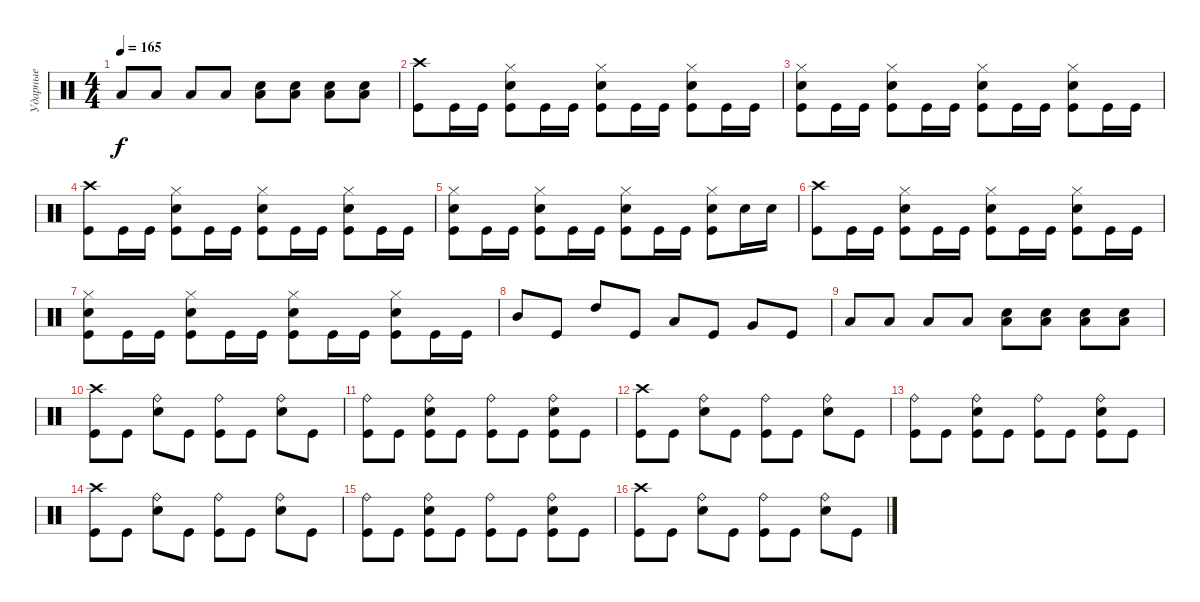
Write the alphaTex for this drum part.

\track ("Ударные" "Ударные") {instrument percussion}
\staff {score}
\articulation defaults
\ts (4 4)
\tempo 165
\clef neutral
\ks c "Low Tom (hit)".8{dy f} "Low Tom (hit)".8 "Low Tom (hit)".8 "Low Tom (hit)".8
("Electric Snare (hit)" "Low Tom (hit)").8 ("Electric Snare (hit)" "Low Tom (hit)").8 ("Electric Snare (hit)" "Low Tom (hit)").8 ("Electric Snare (hit)" "Low Tom (hit)").8 |
("Crash high (hit)" "Kick (hit)").8 "Kick (hit)".16 "Kick (hit)".16 ("Hi-Hat (closed)" "Electric Snare (hit)" "Kick (hit)").8 "Kick (hit)".16 "Kick (hit)".16 ("Hi-Hat (closed)" "Electric Snare (hit)" "Kick (hit)").8 "Kick (hit)".16 "Kick (hit)".16 ("Hi-Hat (closed)" "Electric Snare (hit)" "Kick (hit)").8 "Kick (hit)".16 "Kick (hit)".16 |
("Hi-Hat (closed)" "Electric Snare (hit)" "Kick (hit)").8 "Kick (hit)".16 "Kick (hit)".16 ("Hi-Hat (closed)" "Electric Snare (hit)" "Kick (hit)").8 "Kick (hit)".16 "Kick (hit)".16 ("Hi-Hat (closed)" "Electric Snare (hit)" "Kick (hit)").8 "Kick (hit)".16 "Kick (hit)".16 ("Hi-Hat (closed)" "Electric Snare (hit)" "Kick (hit)").8 "Kick (hit)".16 "Kick (hit)".16 |
("Crash high (hit)" "Kick (hit)").8 "Kick (hit)".16 "Kick (hit)".16 ("Hi-Hat (closed)" "Electric Snare (hit)" "Kick (hit)").8 "Kick (hit)".16 "Kick (hit)".16 ("Hi-Hat (closed)" "Electric Snare (hit)" "Kick (hit)").8 "Kick (hit)".16 "Kick (hit)".16 ("Hi-Hat (closed)" "Electric Snare (hit)" "Kick (hit)").8 "Kick (hit)".16 "Kick (hit)".16 |
("Hi-Hat (closed)" "Electric Snare (hit)" "Kick (hit)").8 "Kick (hit)".16 "Kick (hit)".16 ("Hi-Hat (closed)" "Electric Snare (hit)" "Kick (hit)").8 "Kick (hit)".16 "Kick (hit)".16 ("Hi-Hat (closed)" "Electric Snare (hit)" "Kick (hit)").8 "Kick (hit)".16 "Kick (hit)".16 ("Hi-Hat (closed)" "Electric Snare (hit)" "Kick (hit)").8 "Electric Snare (hit)".16 "Electric Snare (hit)".16 |
("Crash high (hit)" "Kick (hit)").8 "Kick (hit)".16 "Kick (hit)".16 ("Hi-Hat (closed)" "Electric Snare (hit)" "Kick (hit)").8 "Kick (hit)".16 "Kick (hit)".16 ("Hi-Hat (closed)" "Electric Snare (hit)" "Kick (hit)").8 "Kick (hit)".16 "Kick (hit)".16 ("Hi-Hat (closed)" "Electric Snare (hit)" "Kick (hit)").8 "Kick (hit)".16 "Kick (hit)".16 |
("Hi-Hat (closed)" "Electric Snare (hit)" "Kick (hit)").8 "Kick (hit)".16 "Kick (hit)".16 ("Hi-Hat (closed)" "Electric Snare (hit)" "Kick (hit)").8 "Kick (hit)".16 "Kick (hit)".16 ("Hi-Hat (closed)" "Electric Snare (hit)" "Kick (hit)").8 "Kick (hit)".16 "Kick (hit)".16 ("Hi-Hat (closed)" "Electric Snare (hit)" "Kick (hit)").8 "Kick (hit)".16 "Kick (hit)".16 |
"Mid Tom (hit)".8 "Kick (hit)".8 "High Tom (hit)".8 "Kick (hit)".8 "Low Tom (hit)".8 "Kick (hit)".8 "Very Low Tom (hit)".8 "Kick (hit)".8 |
"Low Tom (hit)".8 "Low Tom (hit)".8 "Low Tom (hit)".8 "Low Tom (hit)".8 ("Electric Snare (hit)" "Low Tom (hit)").8 ("Electric Snare (hit)" "Low Tom (hit)").8 ("Electric Snare (hit)" "Low Tom (hit)").8 ("Electric Snare (hit)" "Low Tom (hit)").8 |
("Crash high (hit)" "Kick (hit)").8 "Kick (hit)".8 ("Ride (bell)" "Electric Snare (hit)").8 "Kick (hit)".8 ("Ride (bell)" "Kick (hit)").8 "Kick (hit)".8 ("Ride (bell)" "Electric Snare (hit)").8 "Kick (hit)".8 |
("Ride (bell)" "Kick (hit)").8 "Kick (hit)".8 ("Ride (bell)" "Electric Snare (hit)" "Kick (hit)").8 "Kick (hit)".8 ("Ride (bell)" "Kick (hit)").8 "Kick (hit)".8 ("Ride (bell)" "Electric Snare (hit)" "Kick (hit)").8 "Kick (hit)".8 |
("Crash high (hit)" "Kick (hit)").8 "Kick (hit)".8 ("Ride (bell)" "Electric Snare (hit)").8 "Kick (hit)".8 ("Ride (bell)" "Kick (hit)").8 "Kick (hit)".8 ("Ride (bell)" "Electric Snare (hit)").8 "Kick (hit)".8 |
("Ride (bell)" "Kick (hit)").8 "Kick (hit)".8 ("Ride (bell)" "Electric Snare (hit)" "Kick (hit)").8 "Kick (hit)".8 ("Ride (bell)" "Kick (hit)").8 "Kick (hit)".8 ("Ride (bell)" "Electric Snare (hit)" "Kick (hit)").8 "Kick (hit)".8 |
("Crash high (hit)" "Kick (hit)").8 "Kick (hit)".8 ("Ride (bell)" "Electric Snare (hit)").8 "Kick (hit)".8 ("Ride (bell)" "Kick (hit)").8 "Kick (hit)".8 ("Ride (bell)" "Electric Snare (hit)").8 "Kick (hit)".8 |
("Ride (bell)" "Kick (hit)").8 "Kick (hit)".8 ("Ride (bell)" "Electric Snare (hit)" "Kick (hit)").8 "Kick (hit)".8 ("Ride (bell)" "Kick (hit)").8 "Kick (hit)".8 ("Ride (bell)" "Electric Snare (hit)" "Kick (hit)").8 "Kick (hit)".8 |
("Crash high (hit)" "Kick (hit)").8 "Kick (hit)".8 ("Ride (bell)" "Electric Snare (hit)").8 "Kick (hit)".8 ("Ride (bell)" "Kick (hit)").8 "Kick (hit)".8 ("Ride (bell)" "Electric Snare (hit)").8 "Kick (hit)".8
